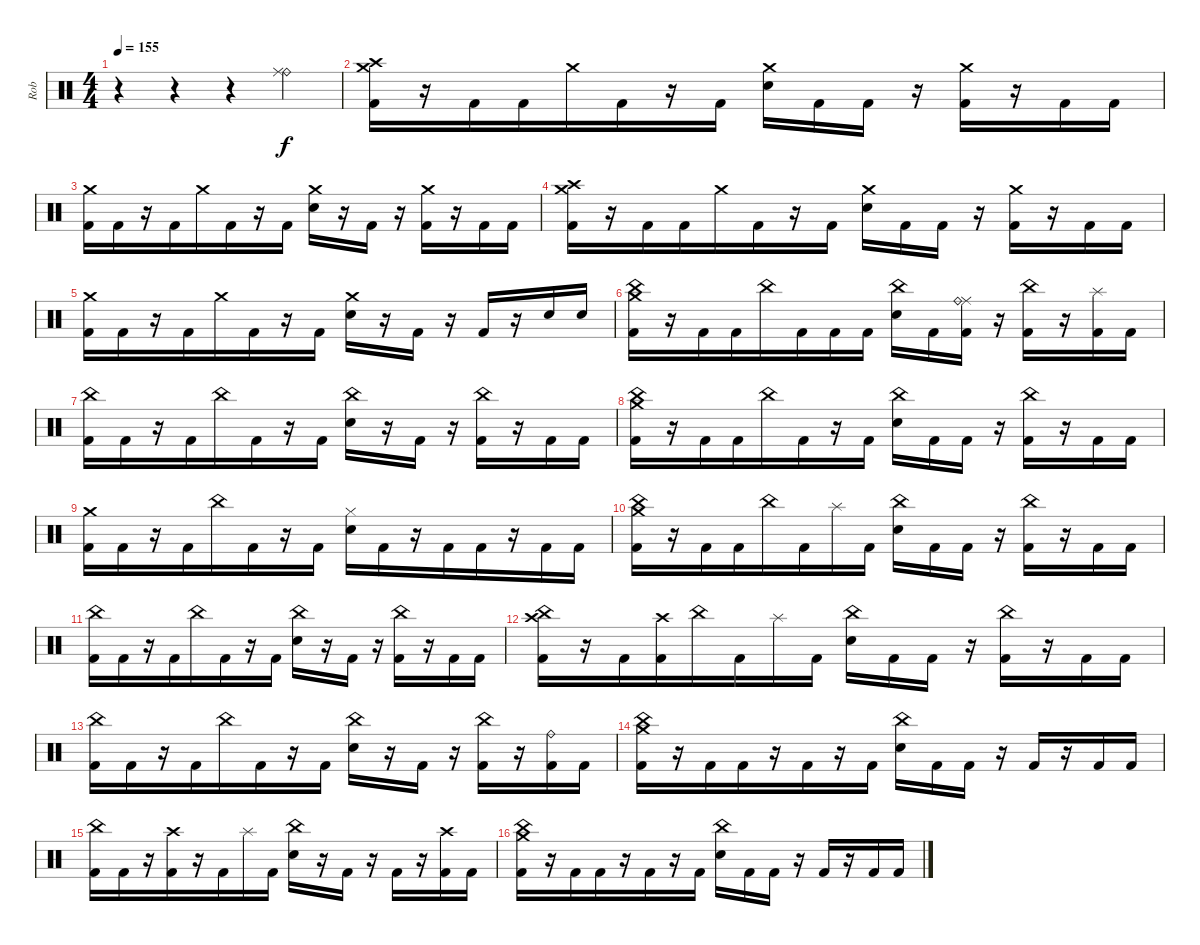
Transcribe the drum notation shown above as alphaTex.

\track ("Rob" "Rob") {instrument percussion}
\staff {score}
\articulation defaults
\ts (4 4)
\tempo 155
\clef neutral
\ks c
r.4{dy f} r.4 r.4 ("Ride (bell)" "Ride (middle)").4 |
("Crash medium (hit)" "Crash high (hit)" "Kick (hit) 2").16 r.16 "Kick (hit) 2".16 "Kick (hit) 2".16{beam merge} "Crash medium (hit)".16 "Kick (hit) 2".16{beam merge} r.16 "Kick (hit) 2".16 ("Electric Snare (hit)" "Crash medium (hit)").16 "Kick (hit) 2".16 "Kick (hit) 2".16 r.16{beam merge} ("Crash medium (hit)" "Kick (hit) 2").16 r.16 "Kick (hit) 2".16 "Kick (hit) 2".16 |
("Kick (hit) 2" "Crash medium (hit)").16 "Kick (hit) 2".16 r.16 "Kick (hit) 2".16{beam merge} "Crash medium (hit)".16 "Kick (hit) 2".16{beam merge} r.16 "Kick (hit) 2".16 ("Electric Snare (hit)" "Crash medium (hit)").16 r.16 "Kick (hit) 2".16 r.16 ("Kick (hit) 2" "Crash medium (hit)").16 r.16 "Kick (hit) 2".16 "Kick (hit) 2".16 |
("Crash high (hit)" "Crash medium (hit)" "Kick (hit) 2").16 r.16 "Kick (hit) 2".16 "Kick (hit) 2".16{beam merge} "Crash medium (hit)".16 "Kick (hit) 2".16{beam merge} r.16 "Kick (hit) 2".16 ("Electric Snare (hit)" "Crash medium (hit)").16 "Kick (hit) 2".16 "Kick (hit) 2".16 r.16{beam merge} ("Crash medium (hit)" "Kick (hit) 2").16 r.16 "Kick (hit) 2".16 "Kick (hit) 2".16 |
("Kick (hit) 2" "Crash medium (hit)").16 "Kick (hit) 2".16 r.16 "Kick (hit) 2".16{beam merge} "Crash medium (hit)".16 "Kick (hit) 2".16{beam merge} r.16 "Kick (hit) 2".16 ("Electric Snare (hit)" "Crash medium (hit)").16 r.16 "Kick (hit) 2".16 r.16 "Kick (hit) 2".16 r.16{beam merge} "Electric Snare (hit)".16 "Electric Snare (hit)".16 |
("Crash medium (hit)" "China (hit)" "Kick (hit) 2").16 r.16 "Kick (hit) 2".16 "Kick (hit) 2".16{beam merge} "China (hit)".16 "Kick (hit) 2".16{beam merge} "Kick (hit) 2".16 "Kick (hit) 2".16 ("Electric Snare (hit)" "China (hit)").16 "Kick (hit) 2".16 ("Ride (middle)" "Ride (bell)" "Kick (hit) 2").16 r.16{beam merge} ("China (hit)" "Kick (hit) 2").16 r.16 ("Splash (hit)" "Kick (hit) 2").16 "Kick (hit) 2".16 |
("Kick (hit) 2" "China (hit)").16 "Kick (hit) 2".16 r.16 "Kick (hit) 2".16{beam merge} "China (hit)".16 "Kick (hit) 2".16{beam merge} r.16 "Kick (hit) 2".16 ("Electric Snare (hit)" "China (hit)").16 r.16 "Kick (hit) 2".16 r.16 ("Kick (hit) 2" "China (hit)").16 r.16 "Kick (hit) 2".16 "Kick (hit) 2".16 |
("China (hit)" "Crash medium (hit)" "Kick (hit) 2").16 r.16 "Kick (hit) 2".16 "Kick (hit) 2".16{beam merge} "China (hit)".16 "Kick (hit) 2".16{beam merge} r.16 "Kick (hit) 2".16 ("Electric Snare (hit)" "China (hit)").16 "Kick (hit) 2".16 "Kick (hit) 2".16 r.16{beam merge} ("China (hit)" "Kick (hit) 2").16 r.16 "Kick (hit) 2".16 "Kick (hit) 2".16 |
("Kick (hit) 2" "Crash medium (hit)").16 "Kick (hit) 2".16 r.16 "Kick (hit) 2".16{beam merge} "China (hit)".16 "Kick (hit) 2".16{beam merge} r.16 "Kick (hit) 2".16 ("Hi-Hat (closed)" "Electric Snare (hit)").16 "Kick (hit) 2".16 r.16 "Kick (hit) 2".16{beam merge} "Kick (hit) 2".16 r.16 "Kick (hit) 2".16 "Kick (hit) 2".16 |
("China (hit)" "Crash medium (hit)" "Kick (hit) 2").16 r.16 "Kick (hit) 2".16 "Kick (hit) 2".16{beam merge} "China (hit)".16 "Kick (hit) 2".16{beam merge} "Splash (hit)".16 "Kick (hit) 2".16 ("Electric Snare (hit)" "China (hit)").16 "Kick (hit) 2".16 "Kick (hit) 2".16 r.16{beam merge} ("China (hit)" "Kick (hit) 2").16 r.16 "Kick (hit) 2".16 "Kick (hit) 2".16 |
("Kick (hit) 2" "China (hit)").16 "Kick (hit) 2".16 r.16 "Kick (hit) 2".16{beam merge} "China (hit)".16 "Kick (hit) 2".16{beam merge} r.16 "Kick (hit) 2".16 ("Electric Snare (hit)" "China (hit)").16 r.16 "Kick (hit) 2".16 r.16 ("Kick (hit) 2" "China (hit)").16 r.16 "Kick (hit) 2".16 "Kick (hit) 2".16 |
("Crash high (hit)" "China (hit)" "Kick (hit) 2").16 r.16 "Kick (hit) 2".16 ("Crash high (hit)" "Kick (hit) 2").16{beam merge} "China (hit)".16 "Kick (hit) 2".16{beam merge} "Splash (hit)".16 "Kick (hit) 2".16 ("Electric Snare (hit)" "China (hit)").16 "Kick (hit) 2".16 "Kick (hit) 2".16 r.16{beam merge} ("China (hit)" "Kick (hit) 2").16 r.16 "Kick (hit) 2".16 "Kick (hit) 2".16 |
("Kick (hit) 2" "China (hit)").16 "Kick (hit) 2".16 r.16 "Kick (hit) 2".16{beam merge} "China (hit)".16 "Kick (hit) 2".16{beam merge} r.16 "Kick (hit) 2".16 ("China (hit)" "Electric Snare (hit)").16{beam merge} r.16{beam merge} "Kick (hit) 2".16 r.16 ("Kick (hit) 2" "China (hit)").16{beam merge} r.16{beam merge} ("Ride (bell)" "Kick (hit) 2").16 "Kick (hit) 2".16 |
("China (hit)" "Crash medium (hit)" "Kick (hit) 2").16 r.16 "Kick (hit) 2".16 "Kick (hit) 2".16{beam merge} r.16 "Kick (hit) 2".16{beam merge} r.16 "Kick (hit) 2".16 ("Electric Snare (hit)" "China (hit)").16 "Kick (hit) 2".16 "Kick (hit) 2".16 r.16{beam merge} "Kick (hit) 2".16 r.16 "Kick (hit) 2".16 "Kick (hit) 2".16 |
("Kick (hit) 2" "China (hit)").16 "Kick (hit) 2".16 r.16 ("Kick (hit) 2" "Crash high (hit)").16{beam merge} r.16 "Kick (hit) 2".16{beam merge} "Splash (hit)".16 "Kick (hit) 2".16 ("Electric Snare (hit)" "China (hit)").16 r.16 "Kick (hit) 2".16 r.16 "Kick (hit) 2".16 r.16 ("Kick (hit) 2" "Crash high (hit)").16 "Kick (hit) 2".16 |
("Crash medium (hit)" "China (hit)" "Kick (hit) 2").16 r.16 "Kick (hit) 2".16 "Kick (hit) 2".16{beam merge} r.16 "Kick (hit) 2".16{beam merge} r.16 "Kick (hit) 2".16 ("Electric Snare (hit)" "China (hit)").16 "Kick (hit) 2".16 "Kick (hit) 2".16 r.16{beam merge} "Kick (hit) 2".16 r.16 "Kick (hit) 2".16 "Kick (hit) 2".16
